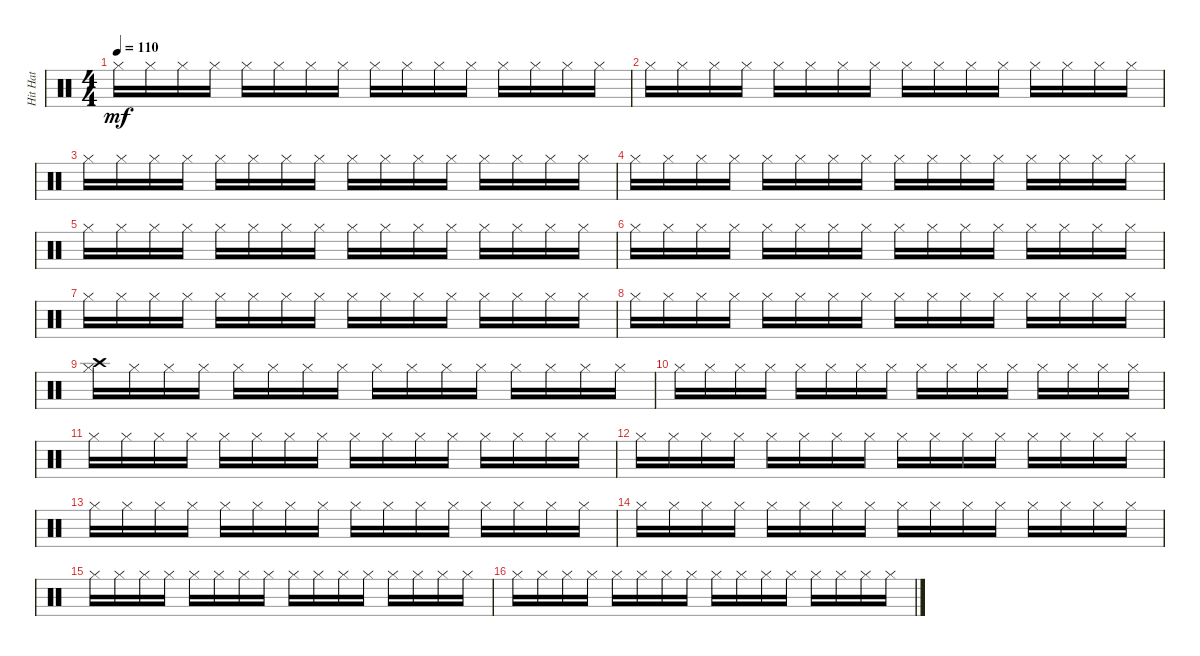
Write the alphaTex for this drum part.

\track ("Hit Hat" "Hit Hat") {instrument percussion}
\staff {score}
\articulation defaults
\ts (4 4)
\tempo 110
\clef neutral
\ks c "Hi-Hat (closed)".16{dy mf} "Hi-Hat (closed)".16 "Hi-Hat (closed)".16 "Hi-Hat (closed)".16 "Hi-Hat (closed)".16 "Hi-Hat (closed)".16 "Hi-Hat (closed)".16 "Hi-Hat (closed)".16 "Hi-Hat (closed)".16 "Hi-Hat (closed)".16 "Hi-Hat (closed)".16 "Hi-Hat (closed)".16 "Hi-Hat (closed)".16 "Hi-Hat (closed)".16 "Hi-Hat (closed)".16 "Hi-Hat (closed)".16
|
"Hi-Hat (closed)".16 "Hi-Hat (closed)".16 "Hi-Hat (closed)".16 "Hi-Hat (closed)".16 "Hi-Hat (closed)".16 "Hi-Hat (closed)".16 "Hi-Hat (closed)".16 "Hi-Hat (closed)".16 "Hi-Hat (closed)".16 "Hi-Hat (closed)".16 "Hi-Hat (closed)".16 "Hi-Hat (closed)".16 "Hi-Hat (closed)".16 "Hi-Hat (closed)".16 "Hi-Hat (closed)".16 "Hi-Hat (closed)".16 |
"Hi-Hat (closed)".16 "Hi-Hat (closed)".16 "Hi-Hat (closed)".16 "Hi-Hat (closed)".16 "Hi-Hat (closed)".16 "Hi-Hat (closed)".16 "Hi-Hat (closed)".16 "Hi-Hat (closed)".16 "Hi-Hat (closed)".16 "Hi-Hat (closed)".16 "Hi-Hat (closed)".16 "Hi-Hat (closed)".16 "Hi-Hat (closed)".16 "Hi-Hat (closed)".16 "Hi-Hat (closed)".16 "Hi-Hat (closed)".16 |
"Hi-Hat (closed)".16 "Hi-Hat (closed)".16 "Hi-Hat (closed)".16 "Hi-Hat (closed)".16 "Hi-Hat (closed)".16 "Hi-Hat (closed)".16 "Hi-Hat (closed)".16 "Hi-Hat (closed)".16 "Hi-Hat (closed)".16 "Hi-Hat (closed)".16 "Hi-Hat (closed)".16 "Hi-Hat (closed)".16 "Hi-Hat (closed)".16 "Hi-Hat (closed)".16 "Hi-Hat (closed)".16 "Hi-Hat (closed)".16 |
"Hi-Hat (closed)".16 "Hi-Hat (closed)".16 "Hi-Hat (closed)".16 "Hi-Hat (closed)".16 "Hi-Hat (closed)".16 "Hi-Hat (closed)".16 "Hi-Hat (closed)".16 "Hi-Hat (closed)".16 "Hi-Hat (closed)".16 "Hi-Hat (closed)".16 "Hi-Hat (closed)".16 "Hi-Hat (closed)".16 "Hi-Hat (closed)".16 "Hi-Hat (closed)".16 "Hi-Hat (closed)".16 "Hi-Hat (closed)".16 |
"Hi-Hat (closed)".16 "Hi-Hat (closed)".16 "Hi-Hat (closed)".16 "Hi-Hat (closed)".16 "Hi-Hat (closed)".16 "Hi-Hat (closed)".16 "Hi-Hat (closed)".16 "Hi-Hat (closed)".16 "Hi-Hat (closed)".16 "Hi-Hat (closed)".16 "Hi-Hat (closed)".16 "Hi-Hat (closed)".16 "Hi-Hat (closed)".16 "Hi-Hat (closed)".16 "Hi-Hat (closed)".16 "Hi-Hat (closed)".16 |
"Hi-Hat (closed)".16 "Hi-Hat (closed)".16 "Hi-Hat (closed)".16 "Hi-Hat (closed)".16 "Hi-Hat (closed)".16 "Hi-Hat (closed)".16 "Hi-Hat (closed)".16 "Hi-Hat (closed)".16 "Hi-Hat (closed)".16 "Hi-Hat (closed)".16 "Hi-Hat (closed)".16 "Hi-Hat (closed)".16 "Hi-Hat (closed)".16 "Hi-Hat (closed)".16 "Hi-Hat (closed)".16 "Hi-Hat (closed)".16 |
"Hi-Hat (closed)".16 "Hi-Hat (closed)".16 "Hi-Hat (closed)".16 "Hi-Hat (closed)".16 "Hi-Hat (closed)".16 "Hi-Hat (closed)".16 "Hi-Hat (closed)".16 "Hi-Hat (closed)".16 "Hi-Hat (closed)".16 "Hi-Hat (closed)".16 "Hi-Hat (closed)".16 "Hi-Hat (closed)".16 "Hi-Hat (closed)".16 "Hi-Hat (closed)".16 "Hi-Hat (closed)".16 "Hi-Hat (closed)".16 |
("Hi-Hat (closed)" "Crash high (hit)").16 "Hi-Hat (closed)".16 "Hi-Hat (closed)".16 "Hi-Hat (closed)".16 "Hi-Hat (closed)".16 "Hi-Hat (closed)".16 "Hi-Hat (closed)".16 "Hi-Hat (closed)".16 "Hi-Hat (closed)".16 "Hi-Hat (closed)".16 "Hi-Hat (closed)".16 "Hi-Hat (closed)".16 "Hi-Hat (closed)".16 "Hi-Hat (closed)".16 "Hi-Hat (closed)".16 "Hi-Hat (closed)".16 |
"Hi-Hat (closed)".16 "Hi-Hat (closed)".16 "Hi-Hat (closed)".16 "Hi-Hat (closed)".16 "Hi-Hat (closed)".16 "Hi-Hat (closed)".16 "Hi-Hat (closed)".16 "Hi-Hat (closed)".16 "Hi-Hat (closed)".16 "Hi-Hat (closed)".16 "Hi-Hat (closed)".16 "Hi-Hat (closed)".16 "Hi-Hat (closed)".16 "Hi-Hat (closed)".16 "Hi-Hat (closed)".16 "Hi-Hat (closed)".16 |
"Hi-Hat (closed)".16 "Hi-Hat (closed)".16 "Hi-Hat (closed)".16 "Hi-Hat (closed)".16 "Hi-Hat (closed)".16 "Hi-Hat (closed)".16 "Hi-Hat (closed)".16 "Hi-Hat (closed)".16 "Hi-Hat (closed)".16 "Hi-Hat (closed)".16 "Hi-Hat (closed)".16 "Hi-Hat (closed)".16 "Hi-Hat (closed)".16 "Hi-Hat (closed)".16 "Hi-Hat (closed)".16 "Hi-Hat (closed)".16 |
"Hi-Hat (closed)".16 "Hi-Hat (closed)".16 "Hi-Hat (closed)".16 "Hi-Hat (closed)".16 "Hi-Hat (closed)".16 "Hi-Hat (closed)".16 "Hi-Hat (closed)".16 "Hi-Hat (closed)".16 "Hi-Hat (closed)".16 "Hi-Hat (closed)".16 "Hi-Hat (closed)".16 "Hi-Hat (closed)".16 "Hi-Hat (closed)".16 "Hi-Hat (closed)".16 "Hi-Hat (closed)".16 "Hi-Hat (closed)".16 |
"Hi-Hat (closed)".16 "Hi-Hat (closed)".16 "Hi-Hat (closed)".16 "Hi-Hat (closed)".16 "Hi-Hat (closed)".16 "Hi-Hat (closed)".16 "Hi-Hat (closed)".16 "Hi-Hat (closed)".16 "Hi-Hat (closed)".16 "Hi-Hat (closed)".16 "Hi-Hat (closed)".16 "Hi-Hat (closed)".16 "Hi-Hat (closed)".16 "Hi-Hat (closed)".16 "Hi-Hat (closed)".16 "Hi-Hat (closed)".16 |
"Hi-Hat (closed)".16 "Hi-Hat (closed)".16 "Hi-Hat (closed)".16 "Hi-Hat (closed)".16 "Hi-Hat (closed)".16 "Hi-Hat (closed)".16 "Hi-Hat (closed)".16 "Hi-Hat (closed)".16 "Hi-Hat (closed)".16 "Hi-Hat (closed)".16 "Hi-Hat (closed)".16 "Hi-Hat (closed)".16 "Hi-Hat (closed)".16 "Hi-Hat (closed)".16 "Hi-Hat (closed)".16 "Hi-Hat (closed)".16 |
"Hi-Hat (closed)".16 "Hi-Hat (closed)".16 "Hi-Hat (closed)".16 "Hi-Hat (closed)".16 "Hi-Hat (closed)".16 "Hi-Hat (closed)".16 "Hi-Hat (closed)".16 "Hi-Hat (closed)".16 "Hi-Hat (closed)".16 "Hi-Hat (closed)".16 "Hi-Hat (closed)".16 "Hi-Hat (closed)".16 "Hi-Hat (closed)".16 "Hi-Hat (closed)".16 "Hi-Hat (closed)".16 "Hi-Hat (closed)".16 |
"Hi-Hat (closed)".16 "Hi-Hat (closed)".16 "Hi-Hat (closed)".16 "Hi-Hat (closed)".16 "Hi-Hat (closed)".16 "Hi-Hat (closed)".16 "Hi-Hat (closed)".16 "Hi-Hat (closed)".16 "Hi-Hat (closed)".16 "Hi-Hat (closed)".16 "Hi-Hat (closed)".16 "Hi-Hat (closed)".16 "Hi-Hat (closed)".16 "Hi-Hat (closed)".16 "Hi-Hat (closed)".16 "Hi-Hat (closed)".16
